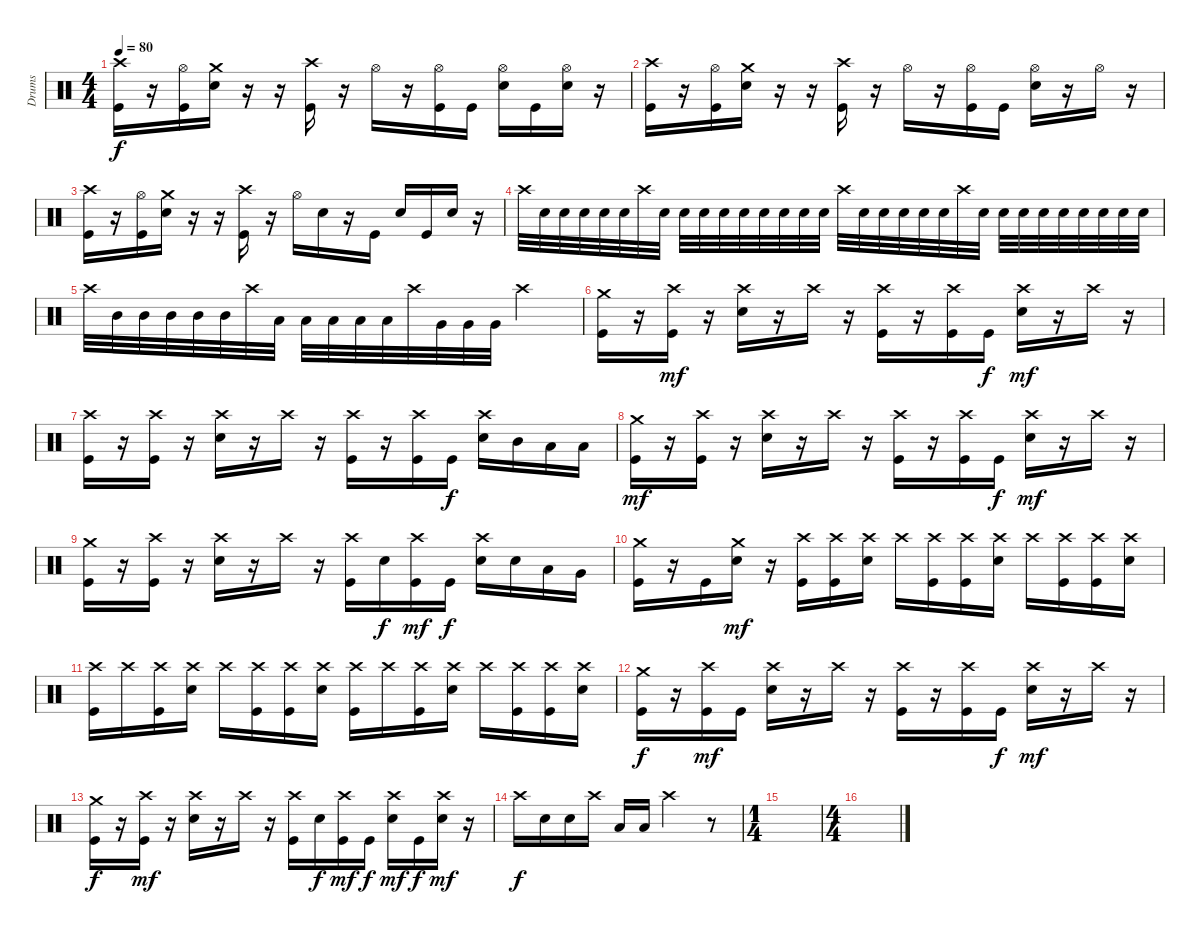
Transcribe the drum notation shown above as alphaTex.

\track ("Drums" "Drums") {instrument percussion}
\staff {score}
\articulation defaults
\ts (4 4)
\tempo 80
\clef neutral
\ks c
("Crash high (hit)" "Kick (hit)").16{dy f} r.16 ("Hi-Hat (open)" "Kick (hit)").16 ("Crash medium (hit)" "Snare (hit) 2").16 r.16 r.16 ("Crash high (hit)" "Kick (hit)").16 r.16 "Hi-Hat (open)".16 r.16 ("Hi-Hat (open)" "Kick (hit)").16 "Kick (hit)".16 ("Hi-Hat (open)" "Snare (hit) 2").16 "Kick (hit)".16 ("Hi-Hat (open)" "Snare (hit) 2").16 r.16 |
("Crash high (hit)" "Kick (hit)").16 r.16 ("Hi-Hat (open)" "Kick (hit)").16 ("Crash medium (hit)" "Snare (hit) 2").16 r.16 r.16 ("Crash high (hit)" "Kick (hit)").16 r.16 "Hi-Hat (open)".16 r.16 ("Hi-Hat (open)" "Kick (hit)").16 "Kick (hit)".16 ("Hi-Hat (open)" "Snare (hit) 2").16 r.16 "Hi-Hat (open)".16 r.16 |
("Crash high (hit)" "Kick (hit)").16 r.16 ("Hi-Hat (open)" "Kick (hit)").16 ("Crash medium (hit)" "Snare (hit) 2").16 r.16 r.16 ("Crash high (hit)" "Kick (hit)").16 r.16 "Hi-Hat (open)".16 "Snare (hit) 2".16 r.16 "Kick (hit)".16 "Snare (hit) 2".16 "Kick (hit)".16 "Snare (hit) 2".16 r.16 |
"Crash high (hit)".32 "Snare (hit) 2".32 "Snare (hit) 2".32 "Snare (hit) 2".32 "Snare (hit) 2".32 "Snare (hit) 2".32 "Crash high (hit)".32 "Snare (hit) 2".32 "Snare (hit) 2".32 "Snare (hit) 2".32 "Snare (hit) 2".32 "Snare (hit) 2".32 "Snare (hit) 2".32 "Snare (hit) 2".32 "Snare (hit) 2".32 "Snare (hit) 2".32 "Crash high (hit)".32 "Snare (hit) 2".32 "Snare (hit) 2".32 "Snare (hit) 2".32 "Snare (hit) 2".32 "Snare (hit) 2".32 "Crash high (hit)".32 "Snare (hit) 2".32 "Snare (hit) 2".32 "Snare (hit) 2".32 "Snare (hit) 2".32 "Snare (hit) 2".32 "Snare (hit) 2".32 "Snare (hit) 2".32 "Snare (hit) 2".32 "Snare (hit) 2".32 |
"Crash high (hit)".32 "Mid Tom (hit)".32 "Mid Tom (hit)".32 "Mid Tom (hit)".32 "Mid Tom (hit)".32 "Mid Tom (hit)".32 "Crash high (hit)".32 "Low Tom (hit)".32 "Low Tom (hit)".32 "Low Tom (hit)".32 "Low Tom (hit)".32 "Low Tom (hit)".32 "Crash high (hit)".32 "Very Low Tom (hit)".32 "Very Low Tom (hit)".32 "Very Low Tom (hit)".32 "Crash high (hit)".2 |
("Crash medium (hit)" "Kick (hit)").16 r.16 ("Crash high (hit)" "Kick (hit)").16{dy mf} r.16 ("Crash high (hit)" "Snare (hit) 2").16 r.16 "Crash high (hit)".16 r.16 ("Crash high (hit)" "Kick (hit)").16 r.16 ("Crash high (hit)" "Kick (hit)").16 "Kick (hit)".16{dy f} ("Crash high (hit)" "Snare (hit) 2").16{dy mf} r.16 "Crash high (hit)".16 r.16 |
("Crash high (hit)" "Kick (hit)").16 r.16 ("Crash high (hit)" "Kick (hit)").16 r.16 ("Crash high (hit)" "Snare (hit) 2").16 r.16 "Crash high (hit)".16 r.16 ("Crash high (hit)" "Kick (hit)").16 r.16 ("Crash high (hit)" "Kick (hit)").16 "Kick (hit)".16{dy f} ("Crash high (hit)" "Snare (hit) 2").16 "Mid Tom (hit)".16 "Low Tom (hit)".16 "Low Tom (hit)".16 |
("Crash medium (hit)" "Kick (hit)").16{dy mf} r.16 ("Crash high (hit)" "Kick (hit)").16 r.16 ("Crash high (hit)" "Snare (hit) 2").16 r.16 "Crash high (hit)".16 r.16 ("Crash high (hit)" "Kick (hit)").16 r.16 ("Crash high (hit)" "Kick (hit)").16 "Kick (hit)".16{dy f} ("Crash high (hit)" "Snare (hit) 2").16{dy mf} r.16 "Crash high (hit)".16 r.16 |
("Crash medium (hit)" "Kick (hit)").16 r.16 ("Crash high (hit)" "Kick (hit)").16 r.16 ("Crash high (hit)" "Snare (hit) 2").16 r.16 "Crash high (hit)".16 r.16 ("Crash high (hit)" "Kick (hit)").16 "Snare (hit) 2".16{dy f} ("Crash high (hit)" "Kick (hit)").16{dy mf} "Kick (hit)".16{dy f} ("Crash high (hit)" "Snare (hit) 2").16 "Snare (hit) 2".16 "Low Tom (hit)".16 "Very Low Tom (hit)".16 |
("Crash medium (hit)" "Kick (hit)").16 r.16 "Kick (hit)".16 ("Crash medium (hit)" "Snare (hit) 2").16{dy mf} r.16 ("Crash high (hit)" "Kick (hit)").16 ("Crash high (hit)" "Kick (hit)").16 ("Crash high (hit)" "Snare (hit) 2").16 "Crash high (hit)".16 ("Crash high (hit)" "Kick (hit)").16 ("Crash high (hit)" "Kick (hit)").16 ("Crash high (hit)" "Snare (hit) 2").16 "Crash high (hit)".16 ("Crash high (hit)" "Kick (hit)").16 ("Crash high (hit)" "Kick (hit)").16 ("Crash high (hit)" "Snare (hit) 2").16 |
("Crash high (hit)" "Kick (hit)").16 "Crash high (hit)".16 ("Crash high (hit)" "Kick (hit)").16 ("Crash high (hit)" "Snare (hit) 2").16 "Crash high (hit)".16 ("Crash high (hit)" "Kick (hit)").16 ("Crash high (hit)" "Kick (hit)").16 ("Crash high (hit)" "Snare (hit) 2").16 ("Crash high (hit)" "Kick (hit)").16 "Crash high (hit)".16 ("Crash high (hit)" "Kick (hit)").16 ("Crash high (hit)" "Snare (hit) 2").16 "Crash high (hit)".16 ("Crash high (hit)" "Kick (hit)").16 ("Crash high (hit)" "Kick (hit)").16 ("Crash high (hit)" "Snare (hit) 2").16 |
("Crash medium (hit)" "Kick (hit)").16{dy f} r.16 ("Crash high (hit)" "Kick (hit)").16{dy mf} "Kick (hit)".16 ("Crash high (hit)" "Snare (hit) 2").16 r.16 "Crash high (hit)".16 r.16 ("Crash high (hit)" "Kick (hit)").16 r.16 ("Crash high (hit)" "Kick (hit)").16 "Kick (hit)".16{dy f} ("Crash high (hit)" "Snare (hit) 2").16{dy mf} r.16 "Crash high (hit)".16 r.16 |
("Crash medium (hit)" "Kick (hit)").16{dy f} r.16 ("Crash high (hit)" "Kick (hit)").16{dy mf} r.16 ("Crash high (hit)" "Snare (hit) 2").16 r.16 "Crash high (hit)".16 r.16 ("Crash high (hit)" "Kick (hit)").16 "Snare (hit) 2".16{dy f} ("Crash high (hit)" "Kick (hit)").16{dy mf} "Kick (hit)".16{dy f} ("Crash high (hit)" "Snare (hit) 2").16{dy mf} "Kick (hit)".16{dy f} ("Crash high (hit)" "Snare (hit) 2").16{dy mf} r.16 |
"Crash high (hit)".16{dy f} "Snare (hit) 2".16 "Snare (hit) 2".16 "Crash high (hit)".16 "Low Tom (hit)".16 "Low Tom (hit)".16 "Crash high (hit)".2 r.8 |
\ts (1 4)
|
\ts (4 4)
